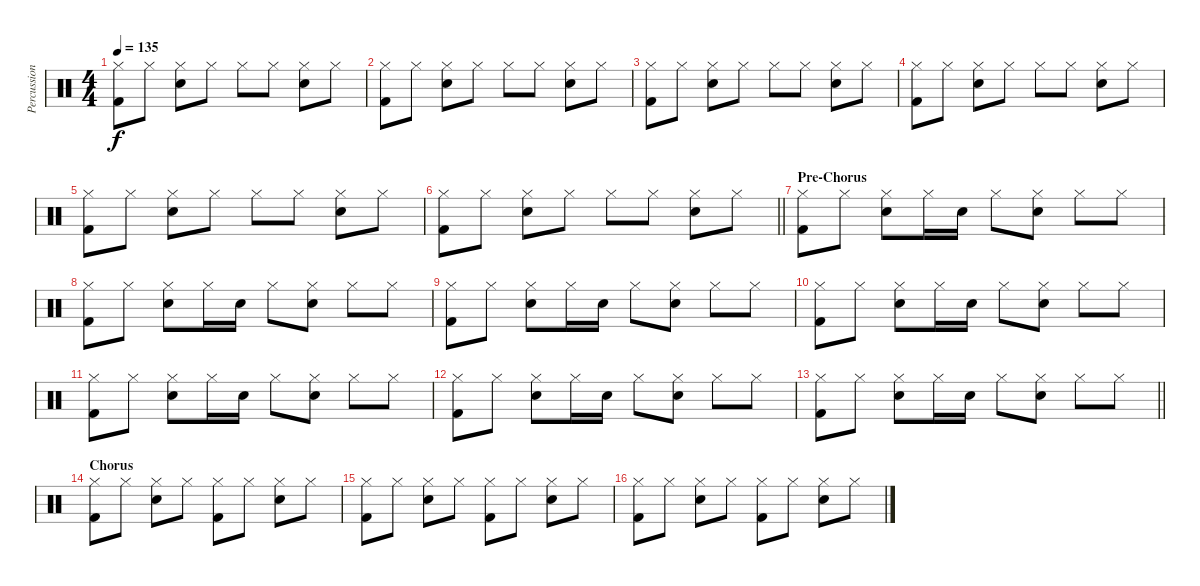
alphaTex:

\track ("Percussion" "Percussion") {instrument percussion}
\staff {score}
\articulation defaults
\ts (4 4)
\tempo 135
\clef neutral
\ks c
("Hi-Hat (closed)" "Kick (hit) 2").8{dy f} "Hi-Hat (closed)".8 ("Hi-Hat (closed)" "Snare (hit) 2").8 "Hi-Hat (closed)".8 "Hi-Hat (closed)".8 "Hi-Hat (closed)".8 ("Hi-Hat (closed)" "Snare (hit) 2").8 "Hi-Hat (closed)".8 |
("Hi-Hat (closed)" "Kick (hit) 2").8 "Hi-Hat (closed)".8 ("Hi-Hat (closed)" "Snare (hit) 2").8 "Hi-Hat (closed)".8 "Hi-Hat (closed)".8 "Hi-Hat (closed)".8 ("Hi-Hat (closed)" "Snare (hit) 2").8 "Hi-Hat (closed)".8 |
("Hi-Hat (closed)" "Kick (hit) 2").8 "Hi-Hat (closed)".8 ("Hi-Hat (closed)" "Snare (hit) 2").8 "Hi-Hat (closed)".8 "Hi-Hat (closed)".8 "Hi-Hat (closed)".8 ("Hi-Hat (closed)" "Snare (hit) 2").8 "Hi-Hat (closed)".8 |
("Hi-Hat (closed)" "Kick (hit) 2").8 "Hi-Hat (closed)".8 ("Hi-Hat (closed)" "Snare (hit) 2").8 "Hi-Hat (closed)".8 "Hi-Hat (closed)".8 "Hi-Hat (closed)".8 ("Hi-Hat (closed)" "Snare (hit) 2").8 "Hi-Hat (closed)".8 |
("Hi-Hat (closed)" "Kick (hit) 2").8 "Hi-Hat (closed)".8 ("Hi-Hat (closed)" "Snare (hit) 2").8 "Hi-Hat (closed)".8 "Hi-Hat (closed)".8 "Hi-Hat (closed)".8 ("Hi-Hat (closed)" "Snare (hit) 2").8 "Hi-Hat (closed)".8 |
\barLineRight lightlight
("Hi-Hat (closed)" "Kick (hit) 2").8 "Hi-Hat (closed)".8 ("Hi-Hat (closed)" "Snare (hit) 2").8 "Hi-Hat (closed)".8 "Hi-Hat (closed)".8 "Hi-Hat (closed)".8 ("Hi-Hat (closed)" "Snare (hit) 2").8 "Hi-Hat (closed)".8 |
\section ("" "Pre-Chorus")
("Hi-Hat (closed)" "Kick (hit) 2").8 "Hi-Hat (closed)".8 ("Hi-Hat (closed)" "Snare (hit) 2").8 "Hi-Hat (closed)".16 "Snare (hit) 2".16 "Hi-Hat (closed)".8 ("Hi-Hat (closed)" "Snare (hit) 2").8 "Hi-Hat (closed)".8 "Hi-Hat (closed)".8 |
("Hi-Hat (closed)" "Kick (hit) 2").8 "Hi-Hat (closed)".8 ("Hi-Hat (closed)" "Snare (hit) 2").8 "Hi-Hat (closed)".16 "Snare (hit) 2".16 "Hi-Hat (closed)".8 ("Hi-Hat (closed)" "Snare (hit) 2").8 "Hi-Hat (closed)".8 "Hi-Hat (closed)".8 |
("Hi-Hat (closed)" "Kick (hit) 2").8 "Hi-Hat (closed)".8 ("Hi-Hat (closed)" "Snare (hit) 2").8 "Hi-Hat (closed)".16 "Snare (hit) 2".16 "Hi-Hat (closed)".8 ("Hi-Hat (closed)" "Snare (hit) 2").8 "Hi-Hat (closed)".8 "Hi-Hat (closed)".8 |
("Hi-Hat (closed)" "Kick (hit) 2").8 "Hi-Hat (closed)".8 ("Hi-Hat (closed)" "Snare (hit) 2").8 "Hi-Hat (closed)".16 "Snare (hit) 2".16 "Hi-Hat (closed)".8 ("Hi-Hat (closed)" "Snare (hit) 2").8 "Hi-Hat (closed)".8 "Hi-Hat (closed)".8 |
("Hi-Hat (closed)" "Kick (hit) 2").8 "Hi-Hat (closed)".8 ("Hi-Hat (closed)" "Snare (hit) 2").8 "Hi-Hat (closed)".16 "Snare (hit) 2".16 "Hi-Hat (closed)".8 ("Hi-Hat (closed)" "Snare (hit) 2").8 "Hi-Hat (closed)".8 "Hi-Hat (closed)".8 |
("Hi-Hat (closed)" "Kick (hit) 2").8 "Hi-Hat (closed)".8 ("Hi-Hat (closed)" "Snare (hit) 2").8 "Hi-Hat (closed)".16 "Snare (hit) 2".16 "Hi-Hat (closed)".8 ("Hi-Hat (closed)" "Snare (hit) 2").8 "Hi-Hat (closed)".8 "Hi-Hat (closed)".8 |
\barLineRight lightlight
("Hi-Hat (closed)" "Kick (hit) 2").8 "Hi-Hat (closed)".8 ("Hi-Hat (closed)" "Snare (hit) 2").8 "Hi-Hat (closed)".16 "Snare (hit) 2".16 "Hi-Hat (closed)".8 ("Hi-Hat (closed)" "Snare (hit) 2").8 "Hi-Hat (closed)".8 "Hi-Hat (closed)".8 |
\section ("" "Chorus")
("Hi-Hat (closed)" "Kick (hit) 2").8 "Hi-Hat (closed)".8 ("Hi-Hat (closed)" "Snare (hit) 2").8 "Hi-Hat (closed)".8 ("Hi-Hat (closed)" "Kick (hit) 2").8 "Hi-Hat (closed)".8 ("Hi-Hat (closed)" "Snare (hit) 2").8 "Hi-Hat (closed)".8 |
("Hi-Hat (closed)" "Kick (hit) 2").8 "Hi-Hat (closed)".8 ("Hi-Hat (closed)" "Snare (hit) 2").8 "Hi-Hat (closed)".8 ("Hi-Hat (closed)" "Kick (hit) 2").8 "Hi-Hat (closed)".8 ("Hi-Hat (closed)" "Snare (hit) 2").8 "Hi-Hat (closed)".8 |
("Hi-Hat (closed)" "Kick (hit) 2").8 "Hi-Hat (closed)".8 ("Hi-Hat (closed)" "Snare (hit) 2").8 "Hi-Hat (closed)".8 ("Hi-Hat (closed)" "Kick (hit) 2").8 "Hi-Hat (closed)".8 ("Hi-Hat (closed)" "Snare (hit) 2").8 "Hi-Hat (closed)".8
